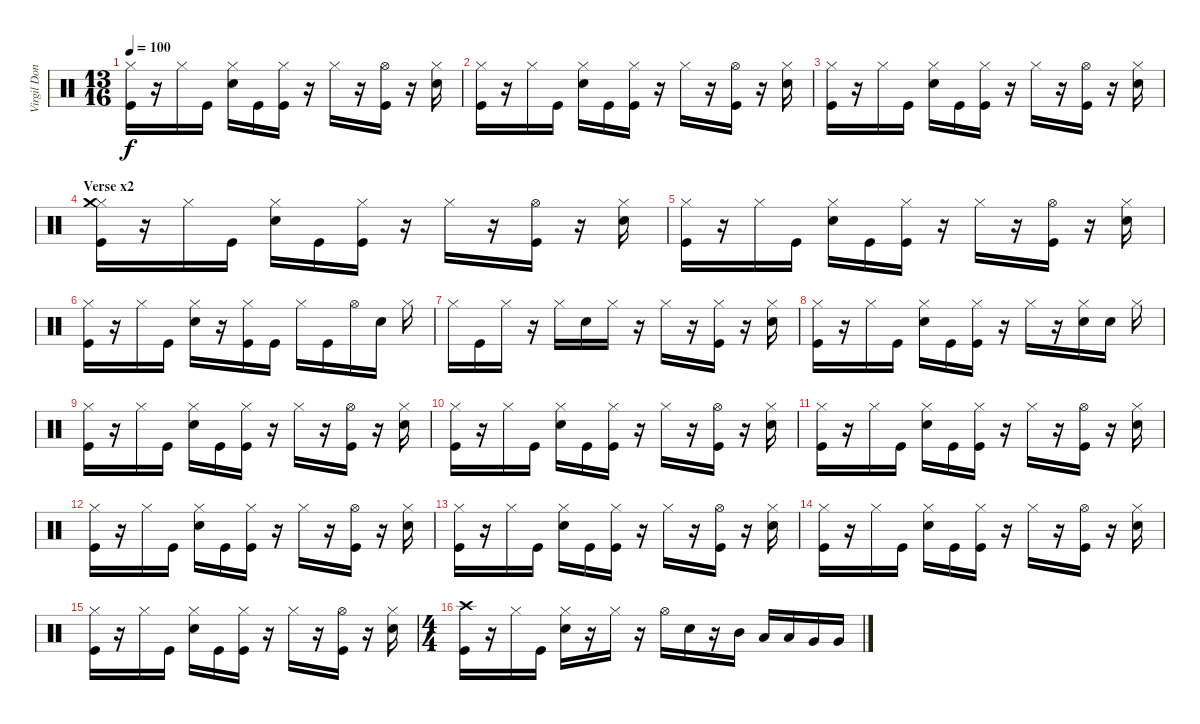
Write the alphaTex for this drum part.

\track ("Virgil Donati" "Virgil Don") {instrument percussion}
\staff {score}
\articulation defaults
\ts (13 16)
\tempo 100
\clef neutral
\ks c
("Hi-Hat (closed)" "Kick (hit)").16{dy f} r.16 "Hi-Hat (closed)".16 "Kick (hit)".16 ("Hi-Hat (closed)" "Electric Snare (hit)").16 "Kick (hit)".16 ("Hi-Hat (closed)" "Kick (hit)").16 r.16 "Hi-Hat (closed)".16 r.16 ("Hi-Hat (open)" "Kick (hit)").16 r.16 ("Hi-Hat (closed)" "Electric Snare (hit)").16 |
("Hi-Hat (closed)" "Kick (hit)").16 r.16 "Hi-Hat (closed)".16 "Kick (hit)".16 ("Hi-Hat (closed)" "Electric Snare (hit)").16 "Kick (hit)".16 ("Hi-Hat (closed)" "Kick (hit)").16 r.16 "Hi-Hat (closed)".16 r.16 ("Hi-Hat (open)" "Kick (hit)").16 r.16 ("Hi-Hat (closed)" "Electric Snare (hit)").16 |
("Hi-Hat (closed)" "Kick (hit)").16 r.16 "Hi-Hat (closed)".16 "Kick (hit)".16 ("Hi-Hat (closed)" "Electric Snare (hit)").16 "Kick (hit)".16 ("Hi-Hat (closed)" "Kick (hit)").16 r.16 "Hi-Hat (closed)".16 r.16 ("Hi-Hat (open)" "Kick (hit)").16 r.16 ("Hi-Hat (closed)" "Electric Snare (hit)").16 |
\section ("" "Verse x2")
("Hi-Hat (closed)" "Crash medium (hit)" "Kick (hit)").16 r.16 "Hi-Hat (closed)".16 "Kick (hit)".16 ("Hi-Hat (closed)" "Electric Snare (hit)").16 "Kick (hit)".16 ("Hi-Hat (closed)" "Kick (hit)").16 r.16 "Hi-Hat (closed)".16 r.16 ("Hi-Hat (open)" "Kick (hit)").16 r.16 ("Hi-Hat (closed)" "Electric Snare (hit)").16 |
("Hi-Hat (closed)" "Kick (hit)").16 r.16 "Hi-Hat (closed)".16 "Kick (hit)".16 ("Hi-Hat (closed)" "Electric Snare (hit)").16 "Kick (hit)".16 ("Hi-Hat (closed)" "Kick (hit)").16 r.16 "Hi-Hat (closed)".16 r.16 ("Hi-Hat (open)" "Kick (hit)").16 r.16 ("Hi-Hat (closed)" "Electric Snare (hit)").16 |
("Hi-Hat (closed)" "Kick (hit)").16 r.16 "Hi-Hat (closed)".16 "Kick (hit)".16 ("Hi-Hat (closed)" "Electric Snare (hit)").16 r.16 ("Hi-Hat (closed)" "Kick (hit)").16 "Kick (hit)".16 "Hi-Hat (closed)".16 "Kick (hit)".16 "Hi-Hat (open)".16 "Electric Snare (hit)".16 "Hi-Hat (closed)".16 |
"Hi-Hat (closed)".16 "Kick (hit)".16 "Hi-Hat (closed)".16 r.16 "Hi-Hat (closed)".16 "Electric Snare (hit)".16 "Hi-Hat (closed)".16 r.16 "Hi-Hat (closed)".16 r.16 ("Hi-Hat (closed)" "Kick (hit)").16 r.16 ("Hi-Hat (closed)" "Electric Snare (hit)").16 |
("Hi-Hat (closed)" "Kick (hit)").16 r.16 "Hi-Hat (closed)".16 "Kick (hit)".16 ("Hi-Hat (closed)" "Electric Snare (hit)").16 "Kick (hit)".16 ("Hi-Hat (closed)" "Kick (hit)").16 r.16 "Hi-Hat (closed)".16 r.16 ("Hi-Hat (closed)" "Electric Snare (hit)").16 "Electric Snare (hit)".16 "Hi-Hat (closed)".16 |
("Hi-Hat (closed)" "Kick (hit)").16 r.16 "Hi-Hat (closed)".16 "Kick (hit)".16 ("Hi-Hat (closed)" "Electric Snare (hit)").16 "Kick (hit)".16 ("Hi-Hat (closed)" "Kick (hit)").16 r.16 "Hi-Hat (closed)".16 r.16 ("Hi-Hat (open)" "Kick (hit)").16 r.16 ("Hi-Hat (closed)" "Electric Snare (hit)").16 |
("Hi-Hat (closed)" "Kick (hit)").16 r.16 "Hi-Hat (closed)".16 "Kick (hit)".16 ("Hi-Hat (closed)" "Electric Snare (hit)").16 "Kick (hit)".16 ("Hi-Hat (closed)" "Kick (hit)").16 r.16 "Hi-Hat (closed)".16 r.16 ("Hi-Hat (open)" "Kick (hit)").16 r.16 ("Hi-Hat (closed)" "Electric Snare (hit)").16 |
("Hi-Hat (closed)" "Kick (hit)").16 r.16 "Hi-Hat (closed)".16 "Kick (hit)".16 ("Hi-Hat (closed)" "Electric Snare (hit)").16 "Kick (hit)".16 ("Hi-Hat (closed)" "Kick (hit)").16 r.16 "Hi-Hat (closed)".16 r.16 ("Hi-Hat (open)" "Kick (hit)").16 r.16 ("Hi-Hat (closed)" "Electric Snare (hit)").16 |
("Hi-Hat (closed)" "Kick (hit)").16 r.16 "Hi-Hat (closed)".16 "Kick (hit)".16 ("Hi-Hat (closed)" "Electric Snare (hit)").16 "Kick (hit)".16 ("Hi-Hat (closed)" "Kick (hit)").16 r.16 "Hi-Hat (closed)".16 r.16 ("Hi-Hat (open)" "Kick (hit)").16 r.16 ("Hi-Hat (closed)" "Electric Snare (hit)").16 |
("Hi-Hat (closed)" "Kick (hit)").16 r.16 "Hi-Hat (closed)".16 "Kick (hit)".16 ("Hi-Hat (closed)" "Electric Snare (hit)").16 "Kick (hit)".16 ("Hi-Hat (closed)" "Kick (hit)").16 r.16 "Hi-Hat (closed)".16 r.16 ("Hi-Hat (open)" "Kick (hit)").16 r.16 ("Hi-Hat (closed)" "Electric Snare (hit)").16 |
("Hi-Hat (closed)" "Kick (hit)").16 r.16 "Hi-Hat (closed)".16 "Kick (hit)".16 ("Hi-Hat (closed)" "Electric Snare (hit)").16 "Kick (hit)".16 ("Hi-Hat (closed)" "Kick (hit)").16 r.16 "Hi-Hat (closed)".16 r.16 ("Hi-Hat (open)" "Kick (hit)").16 r.16 ("Hi-Hat (closed)" "Electric Snare (hit)").16 |
("Hi-Hat (closed)" "Kick (hit)").16 r.16 "Hi-Hat (closed)".16 "Kick (hit)".16 ("Hi-Hat (closed)" "Electric Snare (hit)").16 "Kick (hit)".16 ("Hi-Hat (closed)" "Kick (hit)").16 r.16 "Hi-Hat (closed)".16 r.16 ("Hi-Hat (open)" "Kick (hit)").16 r.16 ("Hi-Hat (closed)" "Electric Snare (hit)").16 |
\ts (4 4)
("Crash high (hit)" "Kick (hit)").16 r.16 "Hi-Hat (closed)".16 "Kick (hit)".16 ("Hi-Hat (closed)" "Electric Snare (hit)").16 r.16 "Hi-Hat (closed)".16 r.16 "Hi-Hat (open)".16 "Electric Snare (hit)".16 r.16 "Mid Tom (hit)".16 "Low Tom (hit)".16 "Low Tom (hit)".16 "Very Low Tom (hit)".16 "Very Low Tom (hit)".16
